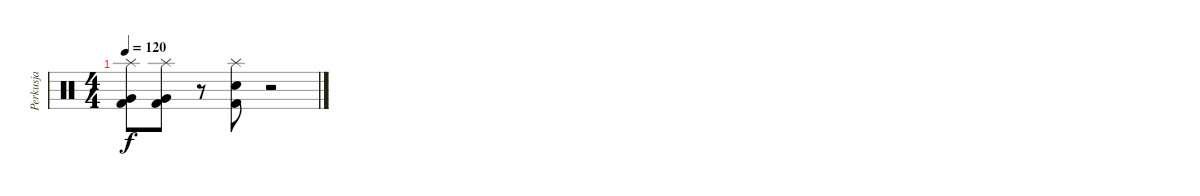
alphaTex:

\track ("Perkusja" "Perkusja") {instrument percussion}
\staff {score}
\articulation defaults
\ts (4 4)
\tempo 120
\clef neutral
\ks c
("Splash (hit)" "Very Low Tom (hit)" "Kick (hit) 2").8{dy f} ("Splash (hit)" "Very Low Tom (hit)" "Kick (hit) 2").8 r.8 ("Splash (hit)" "Electric Snare (hit)" "Kick (hit) 2").8 r.2
